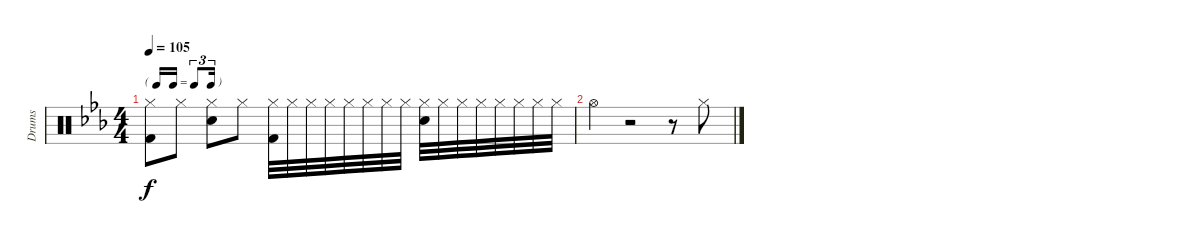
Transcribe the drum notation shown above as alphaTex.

\track ("Drums" "Drums") {instrument percussion}
\staff {score}
\articulation defaults
\ts (4 4)
\tf triplet16th
\tempo 105
\clef neutral
\ks eb
("Hi-Hat (closed)" "Kick (hit) 2").8{dy f} "Hi-Hat (closed)".8 ("Hi-Hat (closed)" "Snare (hit) 2").8 "Hi-Hat (closed)".8 ("Hi-Hat (closed)" "Kick (hit) 2").32 "Hi-Hat (closed)".32 "Hi-Hat (closed)".32 "Hi-Hat (closed)".32 "Hi-Hat (closed)".32 "Hi-Hat (closed)".32 "Hi-Hat (closed)".32 "Hi-Hat (closed)".32 ("Hi-Hat (closed)" "Snare (hit) 2").32 "Hi-Hat (closed)".32 "Hi-Hat (closed)".32 "Hi-Hat (closed)".32 "Hi-Hat (closed)".32 "Hi-Hat (closed)".32 "Hi-Hat (closed)".32 "Hi-Hat (closed)".32 |
"Hi-Hat (open)".4 r.2 r.8 "Hi-Hat (closed)".8
